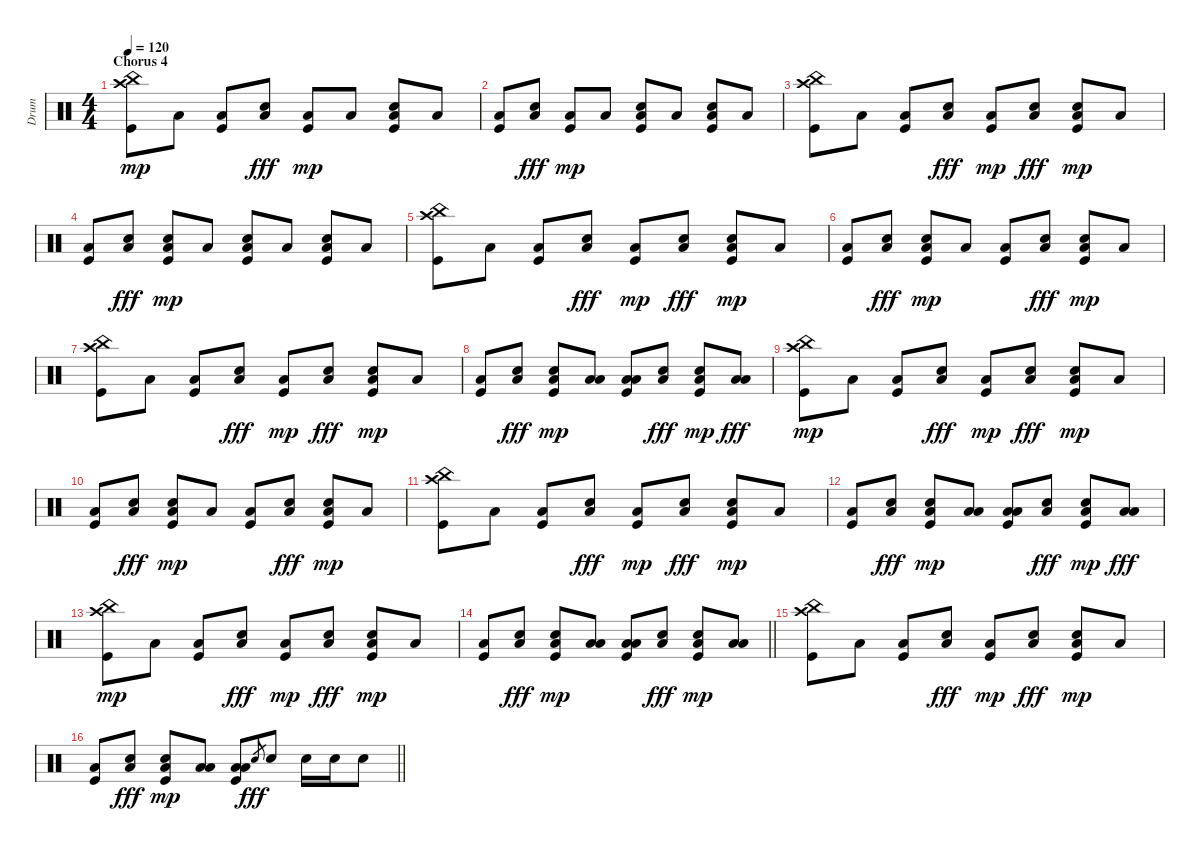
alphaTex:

\track ("Drum" "Drum") {instrument percussion}
\staff {score}
\articulation defaults
\ts (4 4)
\section ("" "Chorus 4")
\tempo 120
\clef neutral
\ks c
("Crash high (hit)" "Kick (hit)" "China (hit)").8{dy mp} "Low Floor Tom (hit)".8 ("Low Floor Tom (hit)" "Kick (hit)").8 ("Low Floor Tom (hit)" "Electric Snare (hit)").8{dy fff} ("Low Floor Tom (hit)" "Kick (hit)").8{dy mp} "Low Floor Tom (hit)".8 ("Low Floor Tom (hit)" "Electric Snare (hit)" "Kick (hit)").8 "Low Floor Tom (hit)".8 |
("Low Floor Tom (hit)" "Kick (hit)").8 ("Low Floor Tom (hit)" "Electric Snare (hit)").8{dy fff} ("Low Floor Tom (hit)" "Kick (hit)").8{dy mp} "Low Floor Tom (hit)".8 ("Low Floor Tom (hit)" "Electric Snare (hit)" "Kick (hit)").8 "Low Floor Tom (hit)".8 ("Low Floor Tom (hit)" "Electric Snare (hit)" "Kick (hit)").8 "Low Floor Tom (hit)".8 |
("Crash high (hit)" "Kick (hit)" "China (hit)").8 "Low Floor Tom (hit)".8 ("Low Floor Tom (hit)" "Kick (hit)").8 ("Low Floor Tom (hit)" "Electric Snare (hit)").8{dy fff} ("Low Floor Tom (hit)" "Kick (hit)").8{dy mp} ("Low Floor Tom (hit)" "Electric Snare (hit)").8{dy fff} ("Low Floor Tom (hit)" "Electric Snare (hit)" "Kick (hit)").8{dy mp} "Low Floor Tom (hit)".8 |
("Low Floor Tom (hit)" "Kick (hit)").8 ("Low Floor Tom (hit)" "Electric Snare (hit)").8{dy fff} ("Low Floor Tom (hit)" "Electric Snare (hit)" "Kick (hit)").8{dy mp} "Low Floor Tom (hit)".8 ("Low Floor Tom (hit)" "Electric Snare (hit)" "Kick (hit)").8 "Low Floor Tom (hit)".8 ("Low Floor Tom (hit)" "Electric Snare (hit)" "Kick (hit)").8 "Low Floor Tom (hit)".8 |
("Crash high (hit)" "Kick (hit)" "China (hit)").8 "Low Floor Tom (hit)".8 ("Low Floor Tom (hit)" "Kick (hit)").8 ("Low Floor Tom (hit)" "Electric Snare (hit)").8{dy fff} ("Low Floor Tom (hit)" "Kick (hit)").8{dy mp} ("Low Floor Tom (hit)" "Electric Snare (hit)").8{dy fff} ("Low Floor Tom (hit)" "Electric Snare (hit)" "Kick (hit)").8{dy mp} "Low Floor Tom (hit)".8 |
("Low Floor Tom (hit)" "Kick (hit)").8 ("Low Floor Tom (hit)" "Electric Snare (hit)").8{dy fff} ("Low Floor Tom (hit)" "Electric Snare (hit)" "Kick (hit)").8{dy mp} "Low Floor Tom (hit)".8 ("Low Floor Tom (hit)" "Kick (hit)").8 ("Low Floor Tom (hit)" "Electric Snare (hit)").8{dy fff} ("Low Floor Tom (hit)" "Electric Snare (hit)" "Kick (hit)").8{dy mp} "Low Floor Tom (hit)".8 |
("Crash high (hit)" "Kick (hit)" "China (hit)").8 "Low Floor Tom (hit)".8 ("Low Floor Tom (hit)" "Kick (hit)").8 ("Low Floor Tom (hit)" "Electric Snare (hit)").8{dy fff} ("Low Floor Tom (hit)" "Kick (hit)").8{dy mp} ("Low Floor Tom (hit)" "Electric Snare (hit)").8{dy fff} ("Low Floor Tom (hit)" "Electric Snare (hit)" "Kick (hit)").8{dy mp} "Low Floor Tom (hit)".8 |
("Low Floor Tom (hit)" "Kick (hit)").8 ("Low Floor Tom (hit)" "Electric Snare (hit)").8{dy fff} ("Low Floor Tom (hit)" "Electric Snare (hit)" "Kick (hit)").8{dy mp} ("Low Tom (hit)" "Low Floor Tom (hit)").8 ("Low Tom (hit)" "Low Floor Tom (hit)" "Kick (hit)").8 ("Low Floor Tom (hit)" "Electric Snare (hit)").8{dy fff} ("Low Floor Tom (hit)" "Electric Snare (hit)" "Kick (hit)").8{dy mp} ("Low Floor Tom (hit)" "Low Tom (hit)").8{dy fff} |
("Crash high (hit)" "Kick (hit)" "China (hit)").8{dy mp} "Low Floor Tom (hit)".8 ("Low Floor Tom (hit)" "Kick (hit)").8 ("Low Floor Tom (hit)" "Electric Snare (hit)").8{dy fff} ("Low Floor Tom (hit)" "Kick (hit)").8{dy mp} ("Low Floor Tom (hit)" "Electric Snare (hit)").8{dy fff} ("Low Floor Tom (hit)" "Electric Snare (hit)" "Kick (hit)").8{dy mp} "Low Floor Tom (hit)".8 |
("Low Floor Tom (hit)" "Kick (hit)").8 ("Low Floor Tom (hit)" "Electric Snare (hit)").8{dy fff} ("Low Floor Tom (hit)" "Electric Snare (hit)" "Kick (hit)").8{dy mp} "Low Floor Tom (hit)".8 ("Low Floor Tom (hit)" "Kick (hit)").8 ("Low Floor Tom (hit)" "Electric Snare (hit)").8{dy fff} ("Low Floor Tom (hit)" "Electric Snare (hit)" "Kick (hit)").8{dy mp} "Low Floor Tom (hit)".8 |
("Crash high (hit)" "Kick (hit)" "China (hit)").8 "Low Floor Tom (hit)".8 ("Low Floor Tom (hit)" "Kick (hit)").8 ("Low Floor Tom (hit)" "Electric Snare (hit)").8{dy fff} ("Low Floor Tom (hit)" "Kick (hit)").8{dy mp} ("Low Floor Tom (hit)" "Electric Snare (hit)").8{dy fff} ("Low Floor Tom (hit)" "Electric Snare (hit)" "Kick (hit)").8{dy mp} "Low Floor Tom (hit)".8 |
("Low Floor Tom (hit)" "Kick (hit)").8 ("Low Floor Tom (hit)" "Electric Snare (hit)").8{dy fff} ("Low Floor Tom (hit)" "Electric Snare (hit)" "Kick (hit)").8{dy mp} ("Low Tom (hit)" "Low Floor Tom (hit)").8 ("Low Tom (hit)" "Low Floor Tom (hit)" "Kick (hit)").8 ("Low Floor Tom (hit)" "Electric Snare (hit)").8{dy fff} ("Low Floor Tom (hit)" "Electric Snare (hit)" "Kick (hit)").8{dy mp} ("Low Floor Tom (hit)" "Low Tom (hit)").8{dy fff} |
("Crash high (hit)" "Kick (hit)" "China (hit)").8{dy mp} "Low Floor Tom (hit)".8 ("Low Floor Tom (hit)" "Kick (hit)").8 ("Low Floor Tom (hit)" "Electric Snare (hit)").8{dy fff} ("Low Floor Tom (hit)" "Kick (hit)").8{dy mp} ("Low Floor Tom (hit)" "Electric Snare (hit)").8{dy fff} ("Low Floor Tom (hit)" "Electric Snare (hit)" "Kick (hit)").8{dy mp} "Low Floor Tom (hit)".8 |
\barLineRight lightlight
("Low Floor Tom (hit)" "Kick (hit)").8 ("Low Floor Tom (hit)" "Electric Snare (hit)").8{dy fff} ("Low Floor Tom (hit)" "Electric Snare (hit)" "Kick (hit)").8{dy mp} ("Low Tom (hit)" "Low Floor Tom (hit)").8 ("Low Tom (hit)" "Low Floor Tom (hit)" "Kick (hit)").8 ("Low Floor Tom (hit)" "Electric Snare (hit)").8{dy fff} ("Low Floor Tom (hit)" "Electric Snare (hit)" "Kick (hit)").8{dy mp} ("Low Floor Tom (hit)" "Low Tom (hit)").8 |
("Crash high (hit)" "Kick (hit)" "China (hit)").8 "Low Floor Tom (hit)".8 ("Low Floor Tom (hit)" "Kick (hit)").8 ("Low Floor Tom (hit)" "Electric Snare (hit)").8{dy fff} ("Low Floor Tom (hit)" "Kick (hit)").8{dy mp} ("Low Floor Tom (hit)" "Electric Snare (hit)").8{dy fff} ("Low Floor Tom (hit)" "Electric Snare (hit)" "Kick (hit)").8{dy mp} "Low Floor Tom (hit)".8 |
\barLineRight lightlight
("Low Floor Tom (hit)" "Kick (hit)").8 ("Low Floor Tom (hit)" "Electric Snare (hit)").8{dy fff} ("Low Floor Tom (hit)" "Electric Snare (hit)" "Kick (hit)").8{dy mp} ("Low Tom (hit)" "Low Floor Tom (hit)").8 ("Low Tom (hit)" "Low Floor Tom (hit)" "Kick (hit)").8 "Electric Snare (hit)".8{gr dy fff} "Electric Snare (hit)".8 "Electric Snare (hit)".16 "Electric Snare (hit)".16 "Electric Snare (hit)".8
